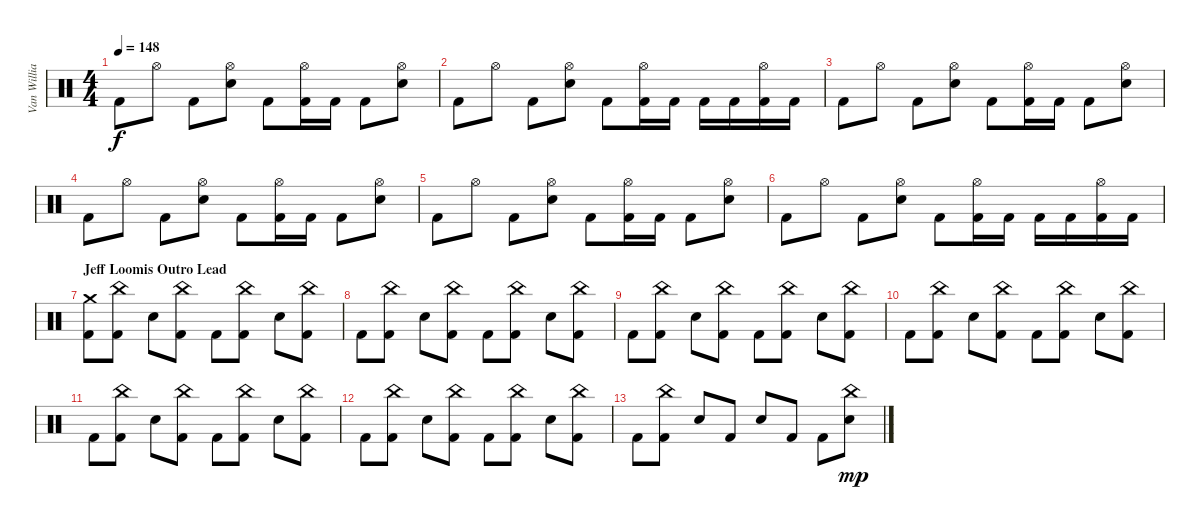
\track ("Van Williams" "Van Willia") {instrument percussion}
\staff {score}
\articulation defaults
\ts (4 4)
\tempo 148
\clef neutral
\ks c "Kick (hit) 2".8{dy f} "Hi-Hat (open)".8 "Kick (hit) 2".8
("Hi-Hat (open)" "Electric Snare (hit)").8 "Kick (hit) 2".8 ("Hi-Hat (open)" "Kick (hit) 2").16 "Kick (hit) 2".16 "Kick (hit) 2".8 ("Hi-Hat (open)" "Electric Snare (hit)").8 |
"Kick (hit) 2".8 "Hi-Hat (open)".8 "Kick (hit) 2".8 ("Hi-Hat (open)" "Electric Snare (hit)").8 "Kick (hit) 2".8 ("Hi-Hat (open)" "Kick (hit) 2").16 "Kick (hit) 2".16 "Kick (hit) 2".16 "Kick (hit) 2".16 ("Hi-Hat (open)" "Kick (hit) 2").16 "Kick (hit) 2".16 |
"Kick (hit) 2".8 "Hi-Hat (open)".8 "Kick (hit) 2".8 ("Hi-Hat (open)" "Electric Snare (hit)").8 "Kick (hit) 2".8 ("Hi-Hat (open)" "Kick (hit) 2").16 "Kick (hit) 2".16 "Kick (hit) 2".8 ("Hi-Hat (open)" "Electric Snare (hit)").8 |
"Kick (hit) 2".8 "Hi-Hat (open)".8 "Kick (hit) 2".8 ("Hi-Hat (open)" "Electric Snare (hit)").8 "Kick (hit) 2".8 ("Hi-Hat (open)" "Kick (hit) 2").16 "Kick (hit) 2".16 "Kick (hit) 2".8 ("Hi-Hat (open)" "Electric Snare (hit)").8 |
"Kick (hit) 2".8 "Hi-Hat (open)".8 "Kick (hit) 2".8 ("Hi-Hat (open)" "Electric Snare (hit)").8 "Kick (hit) 2".8 ("Hi-Hat (open)" "Kick (hit) 2").16 "Kick (hit) 2".16 "Kick (hit) 2".8 ("Hi-Hat (open)" "Electric Snare (hit)").8 |
"Kick (hit) 2".8 "Hi-Hat (open)".8 "Kick (hit) 2".8 ("Hi-Hat (open)" "Electric Snare (hit)").8 "Kick (hit) 2".8 ("Hi-Hat (open)" "Kick (hit) 2").16 "Kick (hit) 2".16 "Kick (hit) 2".16 "Kick (hit) 2".16 ("Hi-Hat (open)" "Kick (hit) 2").16 "Kick (hit) 2".16 |
\section ("" "Jeff Loomis Outro Lead")
("Crash medium (hit)" "Kick (hit) 2").8 ("China (hit)" "Kick (hit) 2").8 "Electric Snare (hit)".8 ("China (hit)" "Kick (hit) 2").8 "Kick (hit) 2".8 ("China (hit)" "Kick (hit) 2").8 "Electric Snare (hit)".8 ("China (hit)" "Kick (hit) 2").8 |
"Kick (hit) 2".8 ("China (hit)" "Kick (hit) 2").8 "Electric Snare (hit)".8 ("China (hit)" "Kick (hit) 2").8 "Kick (hit) 2".8 ("China (hit)" "Kick (hit) 2").8 "Electric Snare (hit)".8 ("China (hit)" "Kick (hit) 2").8 |
"Kick (hit) 2".8 ("China (hit)" "Kick (hit) 2").8 "Electric Snare (hit)".8 ("China (hit)" "Kick (hit) 2").8 "Kick (hit) 2".8 ("China (hit)" "Kick (hit) 2").8 "Electric Snare (hit)".8 ("China (hit)" "Kick (hit) 2").8 |
"Kick (hit) 2".8 ("China (hit)" "Kick (hit) 2").8 "Electric Snare (hit)".8 ("China (hit)" "Kick (hit) 2").8 "Kick (hit) 2".8 ("China (hit)" "Kick (hit) 2").8 "Electric Snare (hit)".8 ("China (hit)" "Kick (hit) 2").8 |
"Kick (hit) 2".8 ("China (hit)" "Kick (hit) 2").8 "Electric Snare (hit)".8 ("China (hit)" "Kick (hit) 2").8 "Kick (hit) 2".8 ("China (hit)" "Kick (hit) 2").8 "Electric Snare (hit)".8 ("China (hit)" "Kick (hit) 2").8 |
"Kick (hit) 2".8 ("China (hit)" "Kick (hit) 2").8 "Electric Snare (hit)".8 ("China (hit)" "Kick (hit) 2").8 "Kick (hit) 2".8 ("China (hit)" "Kick (hit) 2").8 "Electric Snare (hit)".8 ("China (hit)" "Kick (hit) 2").8 |
"Kick (hit) 2".8 ("China (hit)" "Kick (hit) 2").8 "Electric Snare (hit)".8 "Kick (hit) 2".8 "Electric Snare (hit)".8 "Kick (hit) 2".8 "Kick (hit) 2".8 ("China (hit)" "Electric Snare (hit)").8{dy mp}
